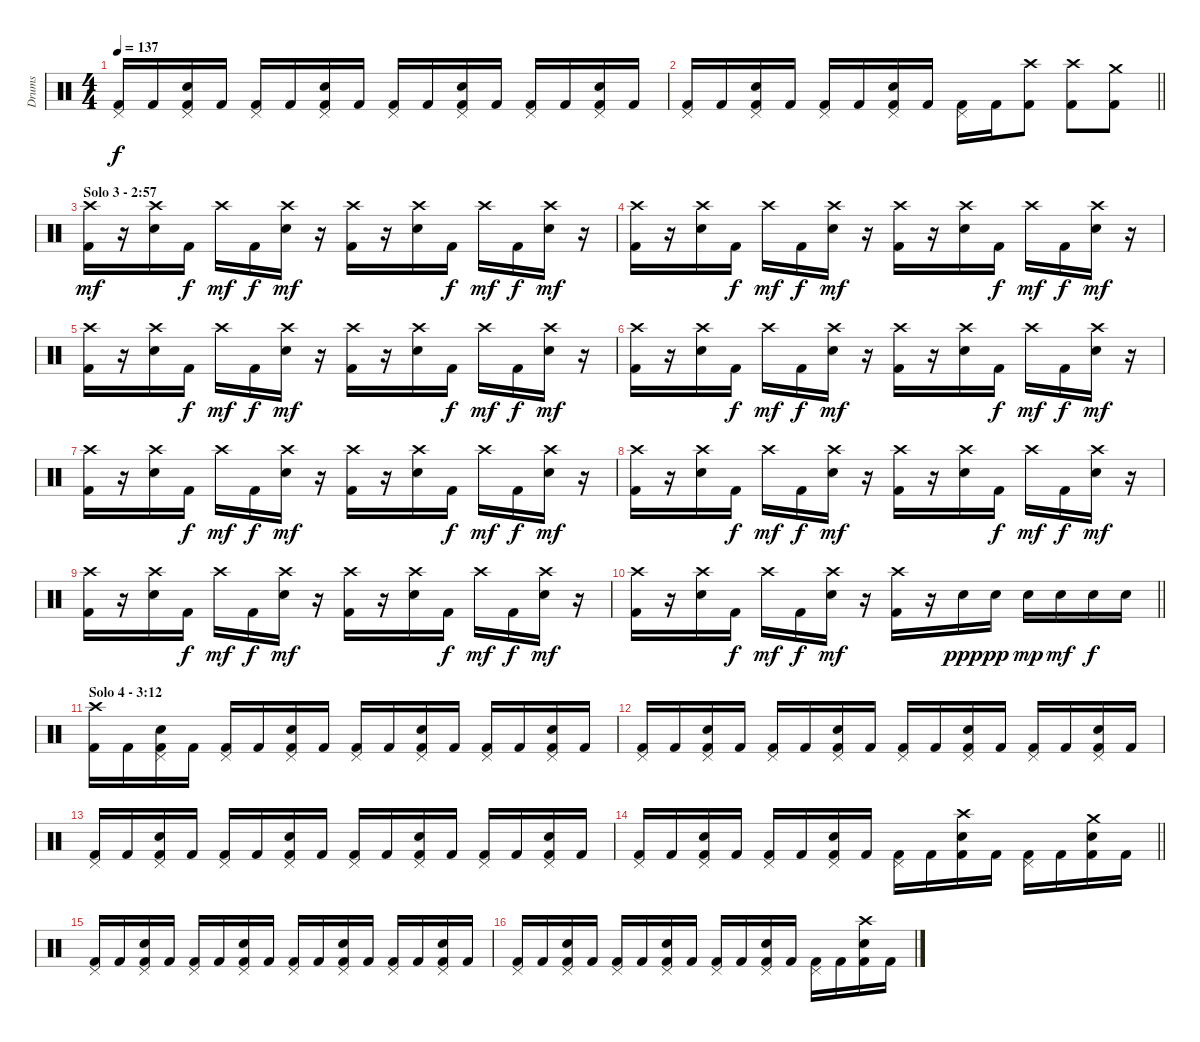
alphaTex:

\track ("Drums" "Drums") {instrument percussion}
\staff
\articulation defaults
\ts (4 4)
\tempo 137
\clef neutral
\ks c
("Pedal Hi-Hat (hit)" "Kick (hit) 2").16{dy f} "Kick (hit) 2".16 ("Pedal Hi-Hat (hit)" "Snare (hit) 2" "Kick (hit) 2").16 "Kick (hit) 2".16 ("Pedal Hi-Hat (hit)" "Kick (hit) 2").16 "Kick (hit) 2".16 ("Pedal Hi-Hat (hit)" "Snare (hit) 2" "Kick (hit) 2").16 "Kick (hit) 2".16 ("Pedal Hi-Hat (hit)" "Kick (hit) 2").16 "Kick (hit) 2".16 ("Pedal Hi-Hat (hit)" "Snare (hit) 2" "Kick (hit) 2").16 "Kick (hit) 2".16 ("Pedal Hi-Hat (hit)" "Kick (hit) 2").16 "Kick (hit) 2".16 ("Pedal Hi-Hat (hit)" "Snare (hit) 2" "Kick (hit) 2").16 "Kick (hit) 2".16 |
\barLineRight lightlight
("Pedal Hi-Hat (hit)" "Kick (hit) 2").16 "Kick (hit) 2".16 ("Pedal Hi-Hat (hit)" "Snare (hit) 2" "Kick (hit) 2").16 "Kick (hit) 2".16 ("Pedal Hi-Hat (hit)" "Kick (hit) 2").16 "Kick (hit) 2".16 ("Pedal Hi-Hat (hit)" "Snare (hit) 2" "Kick (hit) 2").16 "Kick (hit) 2".16 ("Pedal Hi-Hat (hit)" "Kick (hit) 2").16 "Kick (hit) 2".16 ("Crash high (hit)" "Kick (hit) 2").8 ("Crash high (hit)" "Kick (hit) 2").8 ("Crash medium (hit)" "Kick (hit) 2").8 |
\section ("" "Solo 3 - 2:57")
("Crash high (hit)" "Kick (hit) 2").16{dy mf} r.16 ("Crash high (hit)" "Snare (hit) 2").16 "Kick (hit) 2".16{dy f} "Crash high (hit)".16{dy mf} "Kick (hit) 2".16{dy f} ("Crash high (hit)" "Snare (hit) 2").16{dy mf} r.16 ("Crash high (hit)" "Kick (hit) 2").16 r.16 ("Crash high (hit)" "Snare (hit) 2").16 "Kick (hit) 2".16{dy f} "Crash high (hit)".16{dy mf} "Kick (hit) 2".16{dy f} ("Crash high (hit)" "Snare (hit) 2").16{dy mf} r.16 |
("Crash high (hit)" "Kick (hit) 2").16 r.16 ("Crash high (hit)" "Snare (hit) 2").16 "Kick (hit) 2".16{dy f} "Crash high (hit)".16{dy mf} "Kick (hit) 2".16{dy f} ("Crash high (hit)" "Snare (hit) 2").16{dy mf} r.16 ("Crash high (hit)" "Kick (hit) 2").16 r.16 ("Crash high (hit)" "Snare (hit) 2").16 "Kick (hit) 2".16{dy f} "Crash high (hit)".16{dy mf} "Kick (hit) 2".16{dy f} ("Crash high (hit)" "Snare (hit) 2").16{dy mf} r.16 |
("Crash high (hit)" "Kick (hit) 2").16 r.16 ("Crash high (hit)" "Snare (hit) 2").16 "Kick (hit) 2".16{dy f} "Crash high (hit)".16{dy mf} "Kick (hit) 2".16{dy f} ("Crash high (hit)" "Snare (hit) 2").16{dy mf} r.16 ("Crash high (hit)" "Kick (hit) 2").16 r.16 ("Crash high (hit)" "Snare (hit) 2").16 "Kick (hit) 2".16{dy f} "Crash high (hit)".16{dy mf} "Kick (hit) 2".16{dy f} ("Crash high (hit)" "Snare (hit) 2").16{dy mf} r.16 |
("Crash high (hit)" "Kick (hit) 2").16 r.16 ("Crash high (hit)" "Snare (hit) 2").16 "Kick (hit) 2".16{dy f} "Crash high (hit)".16{dy mf} "Kick (hit) 2".16{dy f} ("Crash high (hit)" "Snare (hit) 2").16{dy mf} r.16 ("Crash high (hit)" "Kick (hit) 2").16 r.16 ("Crash high (hit)" "Snare (hit) 2").16 "Kick (hit) 2".16{dy f} "Crash high (hit)".16{dy mf} "Kick (hit) 2".16{dy f} ("Crash high (hit)" "Snare (hit) 2").16{dy mf} r.16 |
("Crash high (hit)" "Kick (hit) 2").16 r.16 ("Crash high (hit)" "Snare (hit) 2").16 "Kick (hit) 2".16{dy f} "Crash high (hit)".16{dy mf} "Kick (hit) 2".16{dy f} ("Crash high (hit)" "Snare (hit) 2").16{dy mf} r.16 ("Crash high (hit)" "Kick (hit) 2").16 r.16 ("Crash high (hit)" "Snare (hit) 2").16 "Kick (hit) 2".16{dy f} "Crash high (hit)".16{dy mf} "Kick (hit) 2".16{dy f} ("Crash high (hit)" "Snare (hit) 2").16{dy mf} r.16 |
("Crash high (hit)" "Kick (hit) 2").16 r.16 ("Crash high (hit)" "Snare (hit) 2").16 "Kick (hit) 2".16{dy f} "Crash high (hit)".16{dy mf} "Kick (hit) 2".16{dy f} ("Crash high (hit)" "Snare (hit) 2").16{dy mf} r.16 ("Crash high (hit)" "Kick (hit) 2").16 r.16 ("Crash high (hit)" "Snare (hit) 2").16 "Kick (hit) 2".16{dy f} "Crash high (hit)".16{dy mf} "Kick (hit) 2".16{dy f} ("Crash high (hit)" "Snare (hit) 2").16{dy mf} r.16 |
("Crash high (hit)" "Kick (hit) 2").16 r.16 ("Crash high (hit)" "Snare (hit) 2").16 "Kick (hit) 2".16{dy f} "Crash high (hit)".16{dy mf} "Kick (hit) 2".16{dy f} ("Crash high (hit)" "Snare (hit) 2").16{dy mf} r.16 ("Crash high (hit)" "Kick (hit) 2").16 r.16 ("Crash high (hit)" "Snare (hit) 2").16 "Kick (hit) 2".16{dy f} "Crash high (hit)".16{dy mf} "Kick (hit) 2".16{dy f} ("Crash high (hit)" "Snare (hit) 2").16{dy mf} r.16 |
\barLineRight lightlight
("Crash high (hit)" "Kick (hit) 2").16 r.16 ("Crash high (hit)" "Snare (hit) 2").16 "Kick (hit) 2".16{dy f} "Crash high (hit)".16{dy mf} "Kick (hit) 2".16{dy f} ("Crash high (hit)" "Snare (hit) 2").16{dy mf} r.16 ("Crash high (hit)" "Kick (hit) 2").16 r.16 "Snare (hit) 2".16{dy ppp} "Snare (hit) 2".16{dy pp} "Snare (hit) 2".16{dy mp} "Snare (hit) 2".16{dy mf} "Snare (hit) 2".16{dy f} "Snare (hit) 2".16 |
\section ("" "Solo 4 - 3:12")
("Crash high (hit)" "Kick (hit) 2").16 "Kick (hit) 2".16 ("Pedal Hi-Hat (hit)" "Snare (hit) 2" "Kick (hit) 2").16 "Kick (hit) 2".16 ("Pedal Hi-Hat (hit)" "Kick (hit) 2").16 "Kick (hit) 2".16 ("Pedal Hi-Hat (hit)" "Snare (hit) 2" "Kick (hit) 2").16 "Kick (hit) 2".16 ("Pedal Hi-Hat (hit)" "Kick (hit) 2").16 "Kick (hit) 2".16 ("Pedal Hi-Hat (hit)" "Snare (hit) 2" "Kick (hit) 2").16 "Kick (hit) 2".16 ("Pedal Hi-Hat (hit)" "Kick (hit) 2").16 "Kick (hit) 2".16 ("Pedal Hi-Hat (hit)" "Snare (hit) 2" "Kick (hit) 2").16 "Kick (hit) 2".16 |
("Pedal Hi-Hat (hit)" "Kick (hit) 2").16 "Kick (hit) 2".16 ("Pedal Hi-Hat (hit)" "Snare (hit) 2" "Kick (hit) 2").16 "Kick (hit) 2".16 ("Pedal Hi-Hat (hit)" "Kick (hit) 2").16 "Kick (hit) 2".16 ("Pedal Hi-Hat (hit)" "Snare (hit) 2" "Kick (hit) 2").16 "Kick (hit) 2".16 ("Pedal Hi-Hat (hit)" "Kick (hit) 2").16 "Kick (hit) 2".16 ("Pedal Hi-Hat (hit)" "Snare (hit) 2" "Kick (hit) 2").16 "Kick (hit) 2".16 ("Pedal Hi-Hat (hit)" "Kick (hit) 2").16 "Kick (hit) 2".16 ("Pedal Hi-Hat (hit)" "Snare (hit) 2" "Kick (hit) 2").16 "Kick (hit) 2".16 |
("Pedal Hi-Hat (hit)" "Kick (hit) 2").16 "Kick (hit) 2".16 ("Pedal Hi-Hat (hit)" "Snare (hit) 2" "Kick (hit) 2").16 "Kick (hit) 2".16 ("Pedal Hi-Hat (hit)" "Kick (hit) 2").16 "Kick (hit) 2".16 ("Pedal Hi-Hat (hit)" "Snare (hit) 2" "Kick (hit) 2").16 "Kick (hit) 2".16 ("Pedal Hi-Hat (hit)" "Kick (hit) 2").16 "Kick (hit) 2".16 ("Pedal Hi-Hat (hit)" "Snare (hit) 2" "Kick (hit) 2").16 "Kick (hit) 2".16 ("Pedal Hi-Hat (hit)" "Kick (hit) 2").16 "Kick (hit) 2".16 ("Pedal Hi-Hat (hit)" "Snare (hit) 2" "Kick (hit) 2").16 "Kick (hit) 2".16 |
\barLineRight lightlight
("Pedal Hi-Hat (hit)" "Kick (hit) 2").16 "Kick (hit) 2".16 ("Pedal Hi-Hat (hit)" "Snare (hit) 2" "Kick (hit) 2").16 "Kick (hit) 2".16 ("Pedal Hi-Hat (hit)" "Kick (hit) 2").16 "Kick (hit) 2".16 ("Pedal Hi-Hat (hit)" "Snare (hit) 2" "Kick (hit) 2").16 "Kick (hit) 2".16 ("Pedal Hi-Hat (hit)" "Kick (hit) 2").16 "Kick (hit) 2".16 ("Crash high (hit)" "Snare (hit) 2" "Kick (hit) 2").16 "Kick (hit) 2".16 ("Pedal Hi-Hat (hit)" "Kick (hit) 2").16 "Kick (hit) 2".16 ("Crash medium (hit)" "Snare (hit) 2" "Kick (hit) 2").16 "Kick (hit) 2".16 |
("Pedal Hi-Hat (hit)" "Kick (hit) 2").16 "Kick (hit) 2".16 ("Pedal Hi-Hat (hit)" "Snare (hit) 2" "Kick (hit) 2").16 "Kick (hit) 2".16 ("Pedal Hi-Hat (hit)" "Kick (hit) 2").16 "Kick (hit) 2".16 ("Pedal Hi-Hat (hit)" "Snare (hit) 2" "Kick (hit) 2").16 "Kick (hit) 2".16 ("Pedal Hi-Hat (hit)" "Kick (hit) 2").16 "Kick (hit) 2".16 ("Pedal Hi-Hat (hit)" "Snare (hit) 2" "Kick (hit) 2").16 "Kick (hit) 2".16 ("Pedal Hi-Hat (hit)" "Kick (hit) 2").16 "Kick (hit) 2".16 ("Pedal Hi-Hat (hit)" "Snare (hit) 2" "Kick (hit) 2").16 "Kick (hit) 2".16 |
("Pedal Hi-Hat (hit)" "Kick (hit) 2").16 "Kick (hit) 2".16 ("Pedal Hi-Hat (hit)" "Snare (hit) 2" "Kick (hit) 2").16 "Kick (hit) 2".16 ("Pedal Hi-Hat (hit)" "Kick (hit) 2").16 "Kick (hit) 2".16 ("Pedal Hi-Hat (hit)" "Snare (hit) 2" "Kick (hit) 2").16 "Kick (hit) 2".16 ("Pedal Hi-Hat (hit)" "Kick (hit) 2").16 "Kick (hit) 2".16 ("Pedal Hi-Hat (hit)" "Snare (hit) 2" "Kick (hit) 2").16 "Kick (hit) 2".16 ("Pedal Hi-Hat (hit)" "Kick (hit) 2").16 "Kick (hit) 2".16 ("Crash high (hit)" "Snare (hit) 2" "Kick (hit) 2").16 "Kick (hit) 2".16
